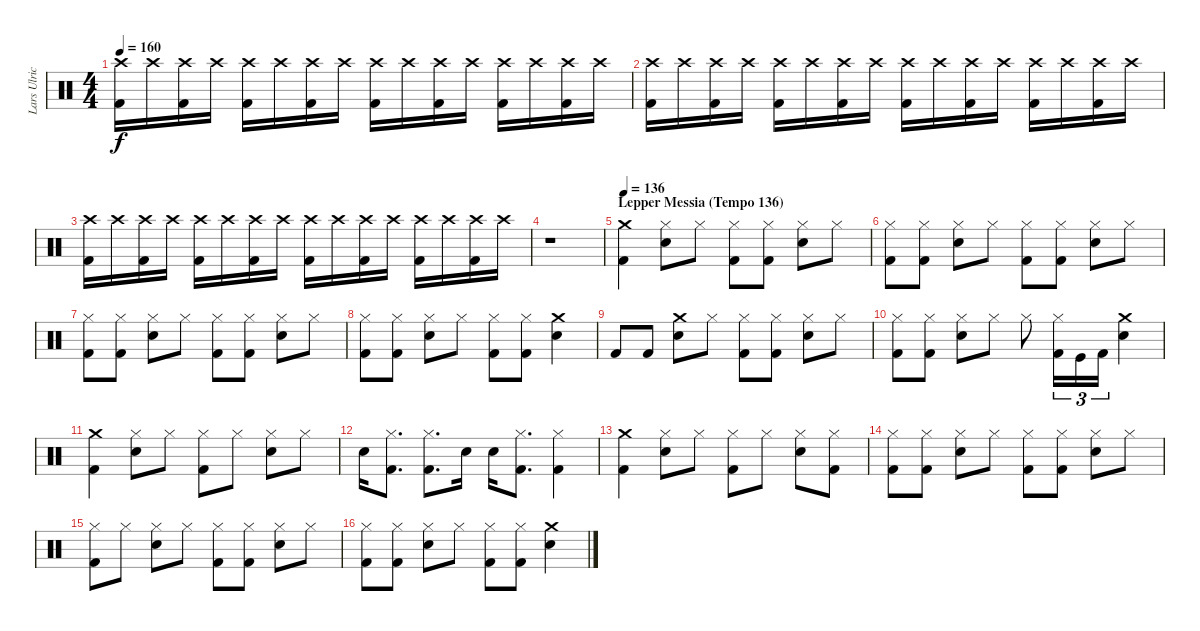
\track ("Lars Ulrich (Drums)" "Lars Ulric") {instrument percussion}
\staff {score}
\articulation defaults
\ts (4 4)
\tempo 160
\clef neutral
\ks c
("Crash high (hit)" "Kick (hit) 2").16{dy f} "Crash high (hit)".16 ("Crash high (hit)" "Kick (hit) 2").16 "Crash high (hit)".16 ("Crash high (hit)" "Kick (hit) 2").16 "Crash high (hit)".16 ("Crash high (hit)" "Kick (hit) 2").16 "Crash high (hit)".16 ("Crash high (hit)" "Kick (hit) 2").16 "Crash high (hit)".16 ("Crash high (hit)" "Kick (hit) 2").16 "Crash high (hit)".16 ("Crash high (hit)" "Kick (hit) 2").16 "Crash high (hit)".16 ("Crash high (hit)" "Kick (hit) 2").16 "Crash high (hit)".16 |
("Crash high (hit)" "Kick (hit) 2").16 "Crash high (hit)".16 ("Crash high (hit)" "Kick (hit) 2").16 "Crash high (hit)".16 ("Crash high (hit)" "Kick (hit) 2").16 "Crash high (hit)".16 ("Crash high (hit)" "Kick (hit) 2").16 "Crash high (hit)".16 ("Crash high (hit)" "Kick (hit) 2").16 "Crash high (hit)".16 ("Crash high (hit)" "Kick (hit) 2").16 "Crash high (hit)".16 ("Crash high (hit)" "Kick (hit) 2").16 "Crash high (hit)".16 ("Crash high (hit)" "Kick (hit) 2").16 "Crash high (hit)".16 |
("Crash high (hit)" "Kick (hit) 2").16 "Crash high (hit)".16 ("Crash high (hit)" "Kick (hit) 2").16 "Crash high (hit)".16 ("Crash high (hit)" "Kick (hit) 2").16 "Crash high (hit)".16 ("Crash high (hit)" "Kick (hit) 2").16 "Crash high (hit)".16 ("Crash high (hit)" "Kick (hit) 2").16 "Crash high (hit)".16 ("Crash high (hit)" "Kick (hit) 2").16 "Crash high (hit)".16 ("Crash high (hit)" "Kick (hit) 2").16 "Crash high (hit)".16 ("Crash high (hit)" "Kick (hit) 2").16 "Crash high (hit)".16 |
r.1 |
\section ("" "Lepper Messia (Tempo 136)")
\tempo 136
("Kick (hit) 2" "Crash medium (hit)").4 ("Hi-Hat (closed)" "Snare (hit) 2").8 "Hi-Hat (closed)".8 ("Kick (hit) 2" "Hi-Hat (closed)").8 ("Kick (hit) 2" "Hi-Hat (closed)").8 ("Snare (hit) 2" "Hi-Hat (closed)").8 "Hi-Hat (closed)".8 |
("Hi-Hat (closed)" "Kick (hit) 2").8 ("Hi-Hat (closed)" "Kick (hit) 2").8 ("Snare (hit) 2" "Hi-Hat (closed)").8 "Hi-Hat (closed)".8 ("Hi-Hat (closed)" "Kick (hit) 2").8 ("Hi-Hat (closed)" "Kick (hit) 2").8 ("Snare (hit) 2" "Hi-Hat (closed)").8 "Hi-Hat (closed)".8 |
("Hi-Hat (closed)" "Kick (hit) 2").8 ("Hi-Hat (closed)" "Kick (hit) 2").8 ("Snare (hit) 2" "Hi-Hat (closed)").8 "Hi-Hat (closed)".8 ("Hi-Hat (closed)" "Kick (hit) 2").8 ("Hi-Hat (closed)" "Kick (hit) 2").8 ("Snare (hit) 2" "Hi-Hat (closed)").8 "Hi-Hat (closed)".8 |
("Hi-Hat (closed)" "Kick (hit) 2").8 ("Hi-Hat (closed)" "Kick (hit) 2").8 ("Snare (hit) 2" "Hi-Hat (closed)").8 "Hi-Hat (closed)".8 ("Hi-Hat (closed)" "Kick (hit) 2").8 ("Hi-Hat (closed)" "Kick (hit) 2").8 ("Snare (hit) 2" "Crash medium (hit)").4 |
"Kick (hit) 2".8 "Kick (hit) 2".8 ("Crash medium (hit)" "Snare (hit) 2").8 "Hi-Hat (closed)".8 ("Hi-Hat (closed)" "Kick (hit) 2").8 ("Hi-Hat (closed)" "Kick (hit) 2").8 ("Snare (hit) 2" "Hi-Hat (closed)").8 "Hi-Hat (closed)".8 |
("Hi-Hat (closed)" "Kick (hit) 2").8 ("Hi-Hat (closed)" "Kick (hit) 2").8 ("Snare (hit) 2" "Hi-Hat (closed)").8 "Hi-Hat (closed)".8 "Hi-Hat (closed)".8 ("Hi-Hat (closed)" "Kick (hit) 2").16{tu (3 2)} "Kick (hit)".16{tu (3 2)} "Kick (hit) 2".16{tu (3 2)} ("Snare (hit) 2" "Crash medium (hit)").4 |
("Crash medium (hit)" "Kick (hit) 2").4 ("Hi-Hat (closed)" "Snare (hit) 2").8 "Hi-Hat (closed)".8 ("Hi-Hat (closed)" "Kick (hit) 2").8 "Hi-Hat (closed)".8 ("Snare (hit) 2" "Hi-Hat (closed)").8 "Hi-Hat (closed)".8 |
"Snare (hit) 2".16 ("Kick (hit) 2" "Hi-Hat (closed)").8{d} ("Kick (hit) 2" "Hi-Hat (closed)").8{d} "Snare (hit) 2".16 "Snare (hit) 2".16 ("Kick (hit) 2" "Hi-Hat (closed)").8{d} ("Hi-Hat (closed)" "Kick (hit) 2").4 |
("Kick (hit) 2" "Crash medium (hit)").4 ("Hi-Hat (closed)" "Snare (hit) 2").8 "Hi-Hat (closed)".8 ("Kick (hit) 2" "Hi-Hat (closed)").8 "Hi-Hat (closed)".8 ("Snare (hit) 2" "Hi-Hat (closed)").8 ("Kick (hit) 2" "Hi-Hat (closed)").8 |
("Hi-Hat (closed)" "Kick (hit) 2").8 ("Hi-Hat (closed)" "Kick (hit) 2").8 ("Snare (hit) 2" "Hi-Hat (closed)").8 "Hi-Hat (closed)".8 ("Hi-Hat (closed)" "Kick (hit) 2").8 ("Hi-Hat (closed)" "Kick (hit) 2").8 ("Snare (hit) 2" "Hi-Hat (closed)").8 "Hi-Hat (closed)".8 |
("Hi-Hat (closed)" "Kick (hit) 2").8 "Hi-Hat (closed)".8 ("Snare (hit) 2" "Hi-Hat (closed)").8 "Hi-Hat (closed)".8 ("Hi-Hat (closed)" "Kick (hit) 2").8 ("Hi-Hat (closed)" "Kick (hit) 2").8 ("Snare (hit) 2" "Hi-Hat (closed)").8 "Hi-Hat (closed)".8 |
("Hi-Hat (closed)" "Kick (hit) 2").8 ("Hi-Hat (closed)" "Kick (hit) 2").8 ("Snare (hit) 2" "Hi-Hat (closed)").8 "Hi-Hat (closed)".8 ("Hi-Hat (closed)" "Kick (hit) 2").8 ("Hi-Hat (closed)" "Kick (hit) 2").8 ("Snare (hit) 2" "Crash medium (hit)").4
